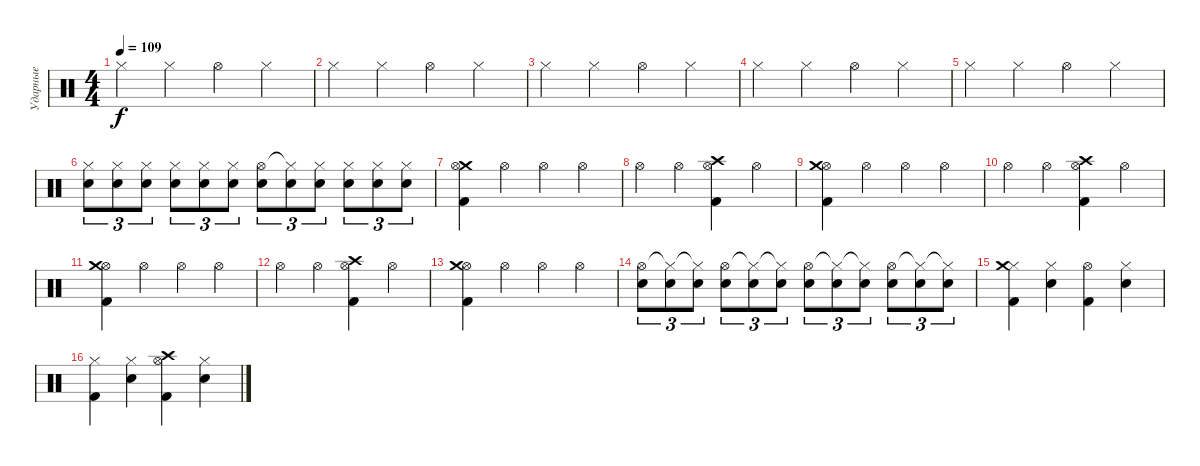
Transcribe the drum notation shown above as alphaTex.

\track ("Ударные" "Ударные") {instrument percussion}
\staff {score}
\articulation defaults
\ts (4 4)
\tempo 109
\clef neutral
\ks c "Hi-Hat (closed)".4{dy f} "Hi-Hat (closed)".4 "Hi-Hat (open)".4 "Hi-Hat (closed)".4
|
"Hi-Hat (closed)".4 "Hi-Hat (closed)".4 "Hi-Hat (open)".4 "Hi-Hat (closed)".4 |
"Hi-Hat (closed)".4 "Hi-Hat (closed)".4 "Hi-Hat (open)".4 "Hi-Hat (closed)".4 |
"Hi-Hat (closed)".4 "Hi-Hat (closed)".4 "Hi-Hat (open)".4 "Hi-Hat (closed)".4 |
"Hi-Hat (closed)".4 "Hi-Hat (closed)".4 "Hi-Hat (open)".4 "Hi-Hat (closed)".4 |
("Snare (hit) 2" "Hi-Hat (closed)").8{tu (3 2)} ("Snare (hit) 2" "Hi-Hat (closed)").8{tu (3 2)} ("Snare (hit) 2" "Hi-Hat (closed)").8{tu (3 2)} ("Snare (hit) 2" "Hi-Hat (closed)").8{tu (3 2)} ("Snare (hit) 2" "Hi-Hat (closed)").8{tu (3 2)} ("Snare (hit) 2" "Hi-Hat (closed)").8{tu (3 2)} ("Snare (hit) 2" "Hi-Hat (open)").8{tu (3 2)} ("Snare (hit) 2" "Hi-Hat (closed)"{t}).8{tu (3 2)} ("Snare (hit) 2" "Hi-Hat (closed)").8{tu (3 2)} ("Snare (hit) 2" "Hi-Hat (closed)").8{tu (3 2)} ("Snare (hit) 2" "Hi-Hat (closed)").8{tu (3 2)} ("Snare (hit) 2" "Hi-Hat (closed)").8{tu (3 2)} |
("Crash medium (hit)" "Hi-Hat (open)" "Kick (hit) 2").4 "Hi-Hat (open)".4 "Hi-Hat (open)".4 "Hi-Hat (open)".4 |
"Hi-Hat (open)".4 "Hi-Hat (open)".4 ("Kick (hit) 2" "Crash high (hit)" "Hi-Hat (open)").4 "Hi-Hat (open)".4 |
("Hi-Hat (open)" "Crash medium (hit)" "Kick (hit) 2").4 "Hi-Hat (open)".4 "Hi-Hat (open)".4 "Hi-Hat (open)".4 |
"Hi-Hat (open)".4 "Hi-Hat (open)".4 ("Hi-Hat (open)" "Crash high (hit)" "Kick (hit) 2").4 "Hi-Hat (open)".4 |
("Hi-Hat (open)" "Crash medium (hit)" "Kick (hit) 2").4 "Hi-Hat (open)".4 "Hi-Hat (open)".4 "Hi-Hat (open)".4 |
"Hi-Hat (open)".4 "Hi-Hat (open)".4 ("Hi-Hat (open)" "Crash high (hit)" "Kick (hit) 2").4 "Hi-Hat (open)".4 |
("Hi-Hat (open)" "Crash medium (hit)" "Kick (hit) 2").4 "Hi-Hat (open)".4 "Hi-Hat (open)".4 "Hi-Hat (open)".4 |
("Snare (hit) 2" "Hi-Hat (open)").8{tu (3 2)} ("Snare (hit) 2" "Hi-Hat (closed)"{t}).8{tu (3 2)} ("Snare (hit) 2" "Hi-Hat (closed)"{t}).8{tu (3 2)} ("Snare (hit) 2" "Hi-Hat (open)").8{tu (3 2)} ("Snare (hit) 2" "Hi-Hat (closed)"{t}).8{tu (3 2)} ("Snare (hit) 2" "Hi-Hat (closed)"{t}).8{tu (3 2)} ("Snare (hit) 2" "Hi-Hat (open)").8{tu (3 2)} ("Snare (hit) 2" "Hi-Hat (closed)"{t}).8{tu (3 2)} ("Snare (hit) 2" "Hi-Hat (closed)"{t}).8{tu (3 2)} ("Snare (hit) 2" "Hi-Hat (open)").8{tu (3 2)} ("Snare (hit) 2" "Hi-Hat (closed)"{t}).8{tu (3 2)} ("Snare (hit) 2" "Hi-Hat (closed)"{t}).8{tu (3 2)} |
("Hi-Hat (closed)" "Kick (hit) 2" "Crash medium (hit)").4 ("Hi-Hat (closed)" "Snare (hit) 2").4 ("Hi-Hat (open)" "Kick (hit) 2").4 ("Hi-Hat (closed)" "Snare (hit) 2").4 |
("Hi-Hat (closed)" "Kick (hit) 2").4 ("Hi-Hat (closed)" "Snare (hit) 2").4 ("Hi-Hat (open)" "Crash high (hit)" "Kick (hit) 2").4 ("Hi-Hat (closed)" "Snare (hit) 2").4
